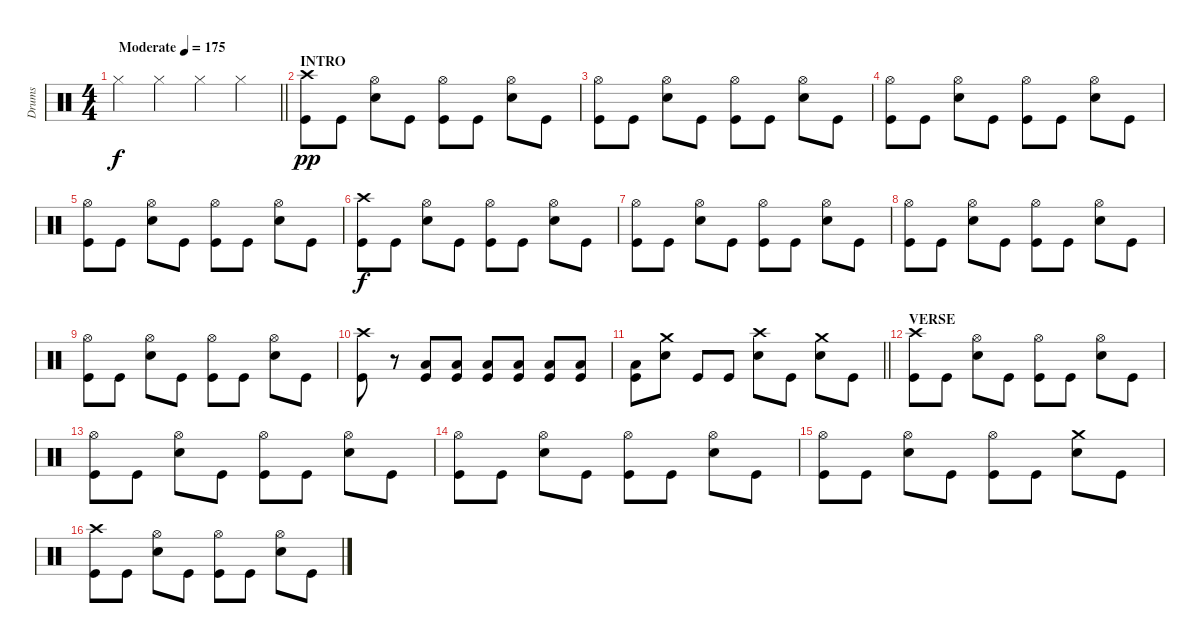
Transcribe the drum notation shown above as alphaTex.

\track ("Drums" "Drums") {instrument percussion}
\staff {score}
\articulation defaults
\ts (4 4)
\tempo (175 "Moderate")
\clef neutral
\barLineRight lightlight
\ks c "Hi-Hat (closed)".4{dy f} "Hi-Hat (closed)".4 "Hi-Hat (closed)".4 "Hi-Hat (closed)".4
|
\section ("" "INTRO")
("Crash high (hit)" "Kick (hit)").8{dy pp} "Kick (hit)".8 ("Hi-Hat (open)" "Snare (hit) 2").8 "Kick (hit)".8 ("Hi-Hat (open)" "Kick (hit)").8 "Kick (hit)".8 ("Hi-Hat (open)" "Snare (hit) 2").8 "Kick (hit)".8 |
("Hi-Hat (open)" "Kick (hit)").8 "Kick (hit)".8 ("Hi-Hat (open)" "Snare (hit) 2").8 "Kick (hit)".8 ("Hi-Hat (open)" "Kick (hit)").8 "Kick (hit)".8 ("Hi-Hat (open)" "Snare (hit) 2").8 "Kick (hit)".8 |
("Hi-Hat (open)" "Kick (hit)").8 "Kick (hit)".8 ("Hi-Hat (open)" "Snare (hit) 2").8 "Kick (hit)".8 ("Hi-Hat (open)" "Kick (hit)").8 "Kick (hit)".8 ("Hi-Hat (open)" "Snare (hit) 2").8 "Kick (hit)".8 |
("Hi-Hat (open)" "Kick (hit)").8 "Kick (hit)".8 ("Hi-Hat (open)" "Snare (hit) 2").8 "Kick (hit)".8 ("Hi-Hat (open)" "Kick (hit)").8 "Kick (hit)".8 ("Hi-Hat (open)" "Snare (hit) 2").8 "Kick (hit)".8 |
("Crash high (hit)" "Kick (hit)").8{dy f} "Kick (hit)".8 ("Hi-Hat (open)" "Snare (hit) 2").8 "Kick (hit)".8 ("Hi-Hat (open)" "Kick (hit)").8 "Kick (hit)".8 ("Hi-Hat (open)" "Snare (hit) 2").8 "Kick (hit)".8 |
("Hi-Hat (open)" "Kick (hit)").8 "Kick (hit)".8 ("Hi-Hat (open)" "Snare (hit) 2").8 "Kick (hit)".8 ("Hi-Hat (open)" "Kick (hit)").8 "Kick (hit)".8 ("Hi-Hat (open)" "Snare (hit) 2").8 "Kick (hit)".8 |
("Hi-Hat (open)" "Kick (hit)").8 "Kick (hit)".8 ("Hi-Hat (open)" "Snare (hit) 2").8 "Kick (hit)".8 ("Hi-Hat (open)" "Kick (hit)").8 "Kick (hit)".8 ("Hi-Hat (open)" "Snare (hit) 2").8 "Kick (hit)".8 |
("Hi-Hat (open)" "Kick (hit)").8 "Kick (hit)".8 ("Hi-Hat (open)" "Snare (hit) 2").8 "Kick (hit)".8 ("Hi-Hat (open)" "Kick (hit)").8 "Kick (hit)".8 ("Hi-Hat (open)" "Snare (hit) 2").8 "Kick (hit)".8 |
("Crash high (hit)" "Kick (hit)").8 r.8 ("Low Floor Tom (hit)" "Kick (hit)").8 ("Low Floor Tom (hit)" "Kick (hit)").8 ("Low Floor Tom (hit)" "Kick (hit)").8 ("Low Floor Tom (hit)" "Kick (hit)").8 ("Low Floor Tom (hit)" "Kick (hit)").8 ("Low Floor Tom (hit)" "Kick (hit)").8 |
\barLineRight lightlight
("Low Floor Tom (hit)" "Kick (hit)").8 ("Crash medium (hit)" "Snare (hit) 2").8 "Kick (hit)".8 "Kick (hit)".8 ("Crash high (hit)" "Snare (hit) 2").8 "Kick (hit)".8 ("Crash medium (hit)" "Snare (hit) 2").8 "Kick (hit)".8 |
\section ("" "VERSE")
("Crash high (hit)" "Kick (hit)").8 "Kick (hit)".8 ("Hi-Hat (open)" "Snare (hit) 2").8 "Kick (hit)".8 ("Hi-Hat (open)" "Kick (hit)").8 "Kick (hit)".8 ("Hi-Hat (open)" "Snare (hit) 2").8 "Kick (hit)".8 |
("Hi-Hat (open)" "Kick (hit)").8 "Kick (hit)".8 ("Hi-Hat (open)" "Snare (hit) 2").8 "Kick (hit)".8 ("Hi-Hat (open)" "Kick (hit)").8 "Kick (hit)".8 ("Hi-Hat (open)" "Snare (hit) 2").8 "Kick (hit)".8 |
("Hi-Hat (open)" "Kick (hit)").8 "Kick (hit)".8 ("Hi-Hat (open)" "Snare (hit) 2").8 "Kick (hit)".8 ("Hi-Hat (open)" "Kick (hit)").8 "Kick (hit)".8 ("Hi-Hat (open)" "Snare (hit) 2").8 "Kick (hit)".8 |
("Hi-Hat (open)" "Kick (hit)").8 "Kick (hit)".8 ("Hi-Hat (open)" "Snare (hit) 2").8 "Kick (hit)".8 ("Hi-Hat (open)" "Kick (hit)").8 "Kick (hit)".8 ("Crash medium (hit)" "Snare (hit) 2").8 "Kick (hit)".8 |
("Crash high (hit)" "Kick (hit)").8 "Kick (hit)".8 ("Hi-Hat (open)" "Snare (hit) 2").8 "Kick (hit)".8 ("Hi-Hat (open)" "Kick (hit)").8 "Kick (hit)".8 ("Hi-Hat (open)" "Snare (hit) 2").8 "Kick (hit)".8
